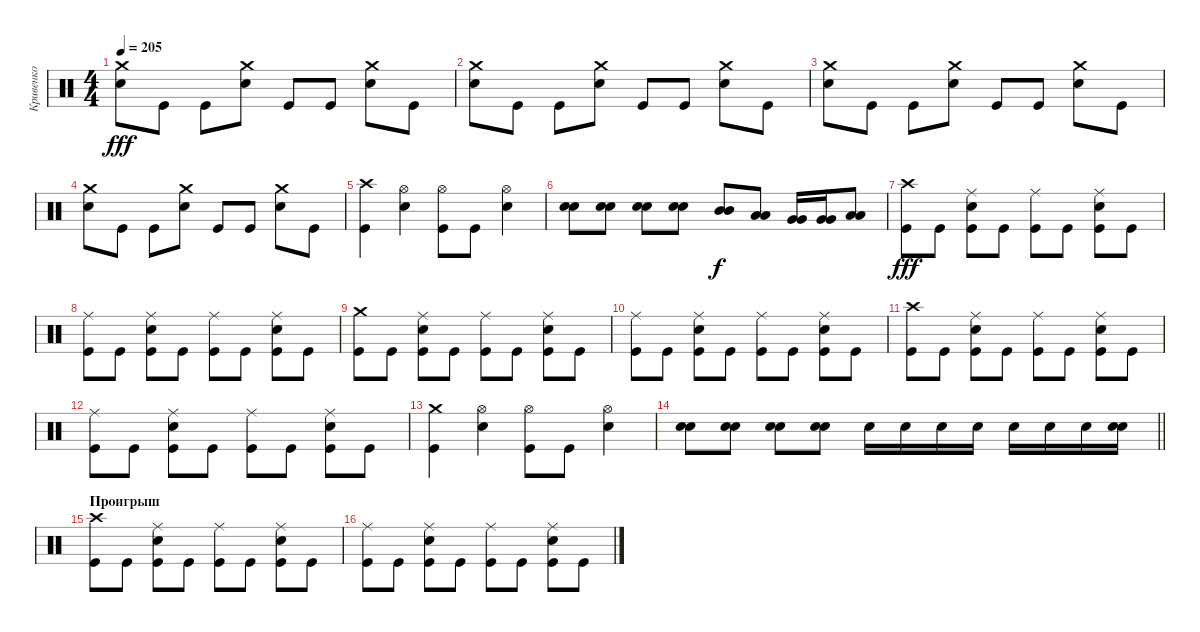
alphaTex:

\track ("Кривенко" "Кривенко") {instrument percussion}
\staff {score}
\articulation defaults
\ts (4 4)
\tempo 205
\clef neutral
\ks c
("Crash medium (hit)" "Electric Snare (hit)").8{dy fff} "Kick (hit)".8 "Kick (hit)".8 ("Crash medium (hit)" "Electric Snare (hit)").8 "Kick (hit)".8 "Kick (hit)".8 ("Crash medium (hit)" "Electric Snare (hit)").8 "Kick (hit)".8 |
("Crash medium (hit)" "Electric Snare (hit)").8 "Kick (hit)".8 "Kick (hit)".8 ("Crash medium (hit)" "Electric Snare (hit)").8 "Kick (hit)".8 "Kick (hit)".8 ("Crash medium (hit)" "Electric Snare (hit)").8 "Kick (hit)".8 |
("Crash medium (hit)" "Electric Snare (hit)").8 "Kick (hit)".8 "Kick (hit)".8 ("Crash medium (hit)" "Electric Snare (hit)").8 "Kick (hit)".8 "Kick (hit)".8 ("Crash medium (hit)" "Electric Snare (hit)").8 "Kick (hit)".8 |
("Crash medium (hit)" "Electric Snare (hit)").8 "Kick (hit)".8 "Kick (hit)".8 ("Crash medium (hit)" "Electric Snare (hit)").8 "Kick (hit)".8 "Kick (hit)".8 ("Crash medium (hit)" "Electric Snare (hit)").8 "Kick (hit)".8 |
("Crash high (hit)" "Kick (hit)").4 ("Hi-Hat (open)" "Electric Snare (hit)").4 ("Hi-Hat (open)" "Kick (hit)").8 "Kick (hit)".8 ("Hi-Hat (open)" "Electric Snare (hit)").4 |
("Electric Snare (hit)" "Electric Snare (hit)").8 ("Electric Snare (hit)" "Electric Snare (hit)").8 ("Electric Snare (hit)" "Electric Snare (hit)").8 ("Electric Snare (hit)" "Electric Snare (hit)").8 ("Mid Tom (hit)" "Mid Tom (hit)").8{dy f} ("Low Tom (hit)" "Low Tom (hit)").8 ("Very Low Tom (hit)" "Very Low Tom (hit)").16 ("Very Low Tom (hit)" "Very Low Tom (hit)").16 ("Low Floor Tom (hit)" "Low Floor Tom (hit)").8 |
("Crash high (hit)" "Kick (hit)").8{dy fff} "Kick (hit)".8 ("Ride (middle)" "Electric Snare (hit)" "Kick (hit)").8 "Kick (hit)".8 ("Ride (middle)" "Kick (hit)").8 "Kick (hit)".8 ("Ride (middle)" "Electric Snare (hit)" "Kick (hit)").8 "Kick (hit)".8 |
("Ride (middle)" "Kick (hit)").8 "Kick (hit)".8 ("Ride (middle)" "Electric Snare (hit)" "Kick (hit)").8 "Kick (hit)".8 ("Ride (middle)" "Kick (hit)").8 "Kick (hit)".8 ("Ride (middle)" "Electric Snare (hit)" "Kick (hit)").8 "Kick (hit)".8 |
("Crash medium (hit)" "Kick (hit)").8 "Kick (hit)".8 ("Ride (middle)" "Electric Snare (hit)" "Kick (hit)").8 "Kick (hit)".8 ("Ride (middle)" "Kick (hit)").8 "Kick (hit)".8 ("Ride (middle)" "Electric Snare (hit)" "Kick (hit)").8 "Kick (hit)".8 |
("Ride (middle)" "Kick (hit)").8 "Kick (hit)".8 ("Ride (middle)" "Electric Snare (hit)" "Kick (hit)").8 "Kick (hit)".8 ("Ride (middle)" "Kick (hit)").8 "Kick (hit)".8 ("Ride (middle)" "Electric Snare (hit)" "Kick (hit)").8 "Kick (hit)".8 |
("Crash high (hit)" "Kick (hit)").8 "Kick (hit)".8 ("Ride (middle)" "Electric Snare (hit)" "Kick (hit)").8 "Kick (hit)".8 ("Ride (middle)" "Kick (hit)").8 "Kick (hit)".8 ("Ride (middle)" "Electric Snare (hit)" "Kick (hit)").8 "Kick (hit)".8 |
("Ride (middle)" "Kick (hit)").8 "Kick (hit)".8 ("Ride (middle)" "Electric Snare (hit)" "Kick (hit)").8 "Kick (hit)".8 ("Ride (middle)" "Kick (hit)").8 "Kick (hit)".8 ("Ride (middle)" "Electric Snare (hit)" "Kick (hit)").8 "Kick (hit)".8 |
("Crash medium (hit)" "Kick (hit)").4 ("Hi-Hat (open)" "Electric Snare (hit)").4 ("Hi-Hat (open)" "Kick (hit)").8 "Kick (hit)".8 ("Hi-Hat (open)" "Electric Snare (hit)").4 |
\barLineRight lightlight
("Electric Snare (hit)" "Electric Snare (hit)").8 ("Electric Snare (hit)" "Electric Snare (hit)").8 ("Electric Snare (hit)" "Electric Snare (hit)").8 ("Electric Snare (hit)" "Electric Snare (hit)").8 "Electric Snare (hit)".16 "Electric Snare (hit)".16 "Electric Snare (hit)".16 "Electric Snare (hit)".16 "Electric Snare (hit)".16 "Electric Snare (hit)".16 "Electric Snare (hit)".16 ("Electric Snare (hit)" "Electric Snare (hit)").16 |
\section ("" "Проигрыш")
("Crash high (hit)" "Kick (hit)").8 "Kick (hit)".8 ("Ride (middle)" "Electric Snare (hit)" "Kick (hit)").8 "Kick (hit)".8 ("Ride (middle)" "Kick (hit)").8 "Kick (hit)".8 ("Ride (middle)" "Electric Snare (hit)" "Kick (hit)").8 "Kick (hit)".8 |
("Ride (middle)" "Kick (hit)").8 "Kick (hit)".8 ("Ride (middle)" "Electric Snare (hit)" "Kick (hit)").8 "Kick (hit)".8 ("Ride (middle)" "Kick (hit)").8 "Kick (hit)".8 ("Ride (middle)" "Electric Snare (hit)" "Kick (hit)").8 "Kick (hit)".8
